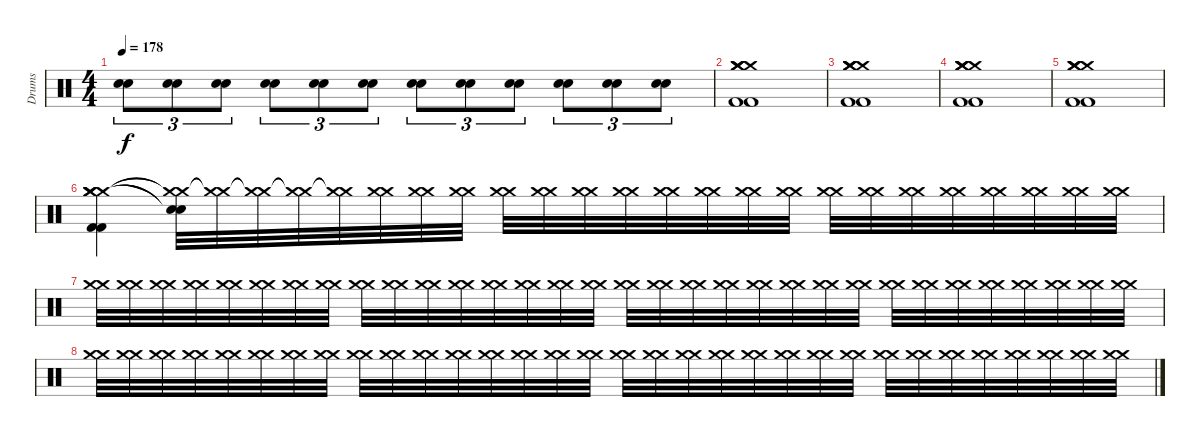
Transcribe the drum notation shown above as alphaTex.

\track ("Drums" "Drums") {instrument percussion}
\staff {score}
\articulation defaults
\ts (4 4)
\tempo 178
\clef neutral
\ks c
("Electric Snare (hit)" "Snare (hit) 2").8{tu (3 2) dy f} ("Electric Snare (hit)" "Snare (hit) 2").8{tu (3 2)} ("Electric Snare (hit)" "Snare (hit) 2").8{tu (3 2)} ("Electric Snare (hit)" "Snare (hit) 2").8{tu (3 2)} ("Electric Snare (hit)" "Snare (hit) 2").8{tu (3 2)} ("Electric Snare (hit)" "Snare (hit) 2").8{tu (3 2)} ("Electric Snare (hit)" "Snare (hit) 2").8{tu (3 2)} ("Electric Snare (hit)" "Snare (hit) 2").8{tu (3 2)} ("Electric Snare (hit)" "Snare (hit) 2").8{tu (3 2)} ("Electric Snare (hit)" "Snare (hit) 2").8{tu (3 2)} ("Electric Snare (hit)" "Snare (hit) 2").8{tu (3 2)} ("Electric Snare (hit)" "Snare (hit) 2").8{tu (3 2)} |
("Crash medium (hit)" "Crash medium (hit)" "Crash medium (hit)" "Crash medium (hit)" "Kick (hit) 2" "Kick (hit) 2").1 |
("Crash medium (hit)" "Crash medium (hit)" "Crash medium (hit)" "Crash medium (hit)" "Kick (hit) 2" "Kick (hit) 2").1 |
("Crash medium (hit)" "Crash medium (hit)" "Crash medium (hit)" "Crash medium (hit)" "Kick (hit) 2" "Kick (hit) 2").1 |
("Crash medium (hit)" "Crash medium (hit)" "Crash medium (hit)" "Crash medium (hit)" "Kick (hit) 2" "Kick (hit) 2").1 |
("Crash medium (hit)" "Crash medium (hit)" "Crash medium (hit)" "Crash medium (hit)" "Kick (hit) 2" "Kick (hit) 2").4 ("Crash medium (hit)"{t} "Crash medium (hit)"{t} "Snare (hit)"{t} "Snare (hit)"{t}).32 ("Crash medium (hit)"{t} "Crash medium (hit)"{t}).32 ("Crash medium (hit)"{t} "Crash medium (hit)"{t}).32 ("Crash medium (hit)"{t} "Crash medium (hit)"{t}).32 ("Crash medium (hit)"{t} "Crash medium (hit)"{t}).32{volume 4} ("Crash medium (hit)" "Crash medium (hit)").32{volume 13} ("Crash medium (hit)" "Crash medium (hit)").32 ("Crash medium (hit)" "Crash medium (hit)").32 ("Crash medium (hit)" "Crash medium (hit)").32 ("Crash medium (hit)" "Crash medium (hit)").32 ("Crash medium (hit)" "Crash medium (hit)").32 ("Crash medium (hit)" "Crash medium (hit)").32 ("Crash medium (hit)" "Crash medium (hit)").32 ("Crash medium (hit)" "Crash medium (hit)").32 ("Crash medium (hit)" "Crash medium (hit)").32 ("Crash medium (hit)" "Crash medium (hit)").32 ("Crash medium (hit)" "Crash medium (hit)").32 ("Crash medium (hit)" "Crash medium (hit)").32 ("Crash medium (hit)" "Crash medium (hit)").32 ("Crash medium (hit)" "Crash medium (hit)").32 ("Crash medium (hit)" "Crash medium (hit)").32 ("Crash medium (hit)" "Crash medium (hit)").32 ("Crash medium (hit)" "Crash medium (hit)").32 ("Crash medium (hit)" "Crash medium (hit)").32 |
("Crash medium (hit)" "Crash medium (hit)").32 ("Crash medium (hit)" "Crash medium (hit)").32 ("Crash medium (hit)" "Crash medium (hit)").32 ("Crash medium (hit)" "Crash medium (hit)").32 ("Crash medium (hit)" "Crash medium (hit)").32 ("Crash medium (hit)" "Crash medium (hit)").32 ("Crash medium (hit)" "Crash medium (hit)").32 ("Crash medium (hit)" "Crash medium (hit)").32 ("Crash medium (hit)" "Crash medium (hit)").32 ("Crash medium (hit)" "Crash medium (hit)").32 ("Crash medium (hit)" "Crash medium (hit)").32 ("Crash medium (hit)" "Crash medium (hit)").32 ("Crash medium (hit)" "Crash medium (hit)").32 ("Crash medium (hit)" "Crash medium (hit)").32 ("Crash medium (hit)" "Crash medium (hit)").32 ("Crash medium (hit)" "Crash medium (hit)").32 ("Crash medium (hit)" "Crash medium (hit)").32 ("Crash medium (hit)" "Crash medium (hit)").32 ("Crash medium (hit)" "Crash medium (hit)").32{volume 8} ("Crash medium (hit)" "Crash medium (hit)").32 ("Crash medium (hit)" "Crash medium (hit)").32 ("Crash medium (hit)" "Crash medium (hit)").32 ("Crash medium (hit)" "Crash medium (hit)").32 ("Crash medium (hit)" "Crash medium (hit)").32 ("Crash medium (hit)" "Crash medium (hit)").32 ("Crash medium (hit)" "Crash medium (hit)").32 ("Crash medium (hit)" "Crash medium (hit)").32 ("Crash medium (hit)" "Crash medium (hit)").32 ("Crash medium (hit)" "Crash medium (hit)").32 ("Crash medium (hit)" "Crash medium (hit)").32 ("Crash medium (hit)" "Crash medium (hit)").32 ("Crash medium (hit)" "Crash medium (hit)").32 |
("Crash medium (hit)" "Crash medium (hit)").32 ("Crash medium (hit)" "Crash medium (hit)").32 ("Crash medium (hit)" "Crash medium (hit)").32 ("Crash medium (hit)" "Crash medium (hit)").32 ("Crash medium (hit)" "Crash medium (hit)").32 ("Crash medium (hit)" "Crash medium (hit)").32 ("Crash medium (hit)" "Crash medium (hit)").32 ("Crash medium (hit)" "Crash medium (hit)").32 ("Crash medium (hit)" "Crash medium (hit)").32 ("Crash medium (hit)" "Crash medium (hit)").32 ("Crash medium (hit)" "Crash medium (hit)").32 ("Crash medium (hit)" "Crash medium (hit)").32 ("Crash medium (hit)" "Crash medium (hit)").32 ("Crash medium (hit)" "Crash medium (hit)").32 ("Crash medium (hit)" "Crash medium (hit)").32 ("Crash medium (hit)" "Crash medium (hit)").32 ("Crash medium (hit)" "Crash medium (hit)").32 ("Crash medium (hit)" "Crash medium (hit)").32 ("Crash medium (hit)" "Crash medium (hit)").32 ("Crash medium (hit)" "Crash medium (hit)").32 ("Crash medium (hit)" "Crash medium (hit)").32 ("Crash medium (hit)" "Crash medium (hit)").32 ("Crash medium (hit)" "Crash medium (hit)").32 ("Crash medium (hit)" "Crash medium (hit)").32 ("Crash medium (hit)" "Crash medium (hit)").32 ("Crash medium (hit)" "Crash medium (hit)").32 ("Crash medium (hit)" "Crash medium (hit)").32 ("Crash medium (hit)" "Crash medium (hit)").32 ("Crash medium (hit)" "Crash medium (hit)").32 ("Crash medium (hit)" "Crash medium (hit)").32 ("Crash medium (hit)" "Crash medium (hit)").32 ("Crash medium (hit)" "Crash medium (hit)").32
